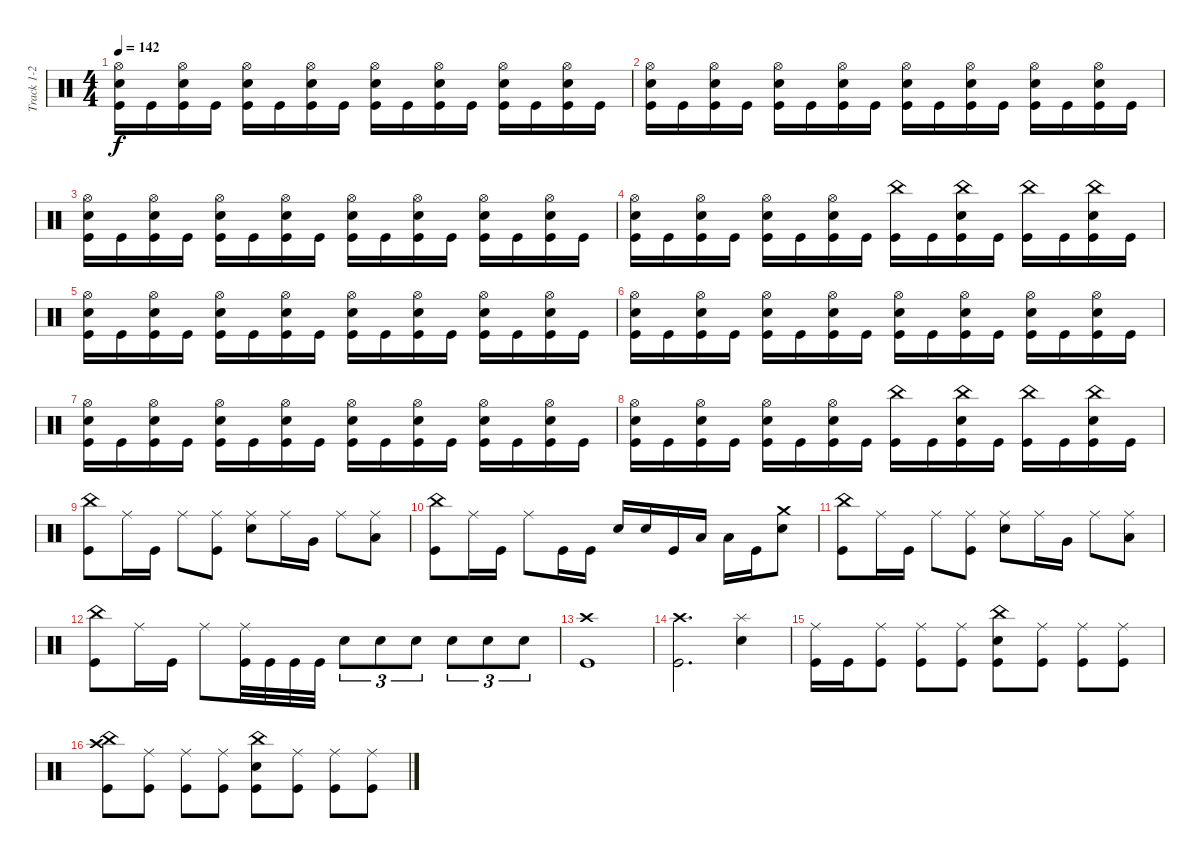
\track ("Track 1-2" "Track 1-2") {instrument percussion}
\staff {score}
\articulation defaults
\ts (4 4)
\tempo 142
\clef neutral
\ks c
("Hi-Hat (open)" "Electric Snare (hit)" "Kick (hit)").16{dy f} "Kick (hit)".16 ("Hi-Hat (open)" "Electric Snare (hit)" "Kick (hit)").16 "Kick (hit)".16 ("Hi-Hat (open)" "Electric Snare (hit)" "Kick (hit)").16 "Kick (hit)".16 ("Hi-Hat (open)" "Electric Snare (hit)" "Kick (hit)").16 "Kick (hit)".16 ("Hi-Hat (open)" "Electric Snare (hit)" "Kick (hit)").16 "Kick (hit)".16 ("Hi-Hat (open)" "Electric Snare (hit)" "Kick (hit)").16 "Kick (hit)".16 ("Hi-Hat (open)" "Electric Snare (hit)" "Kick (hit)").16 "Kick (hit)".16 ("Hi-Hat (open)" "Electric Snare (hit)" "Kick (hit)").16 "Kick (hit)".16 |
("Hi-Hat (open)" "Electric Snare (hit)" "Kick (hit)").16 "Kick (hit)".16 ("Hi-Hat (open)" "Electric Snare (hit)" "Kick (hit)").16 "Kick (hit)".16 ("Hi-Hat (open)" "Electric Snare (hit)" "Kick (hit)").16 "Kick (hit)".16 ("Hi-Hat (open)" "Electric Snare (hit)" "Kick (hit)").16 "Kick (hit)".16 ("Hi-Hat (open)" "Electric Snare (hit)" "Kick (hit)").16 "Kick (hit)".16 ("Hi-Hat (open)" "Electric Snare (hit)" "Kick (hit)").16 "Kick (hit)".16 ("Hi-Hat (open)" "Electric Snare (hit)" "Kick (hit)").16 "Kick (hit)".16 ("Hi-Hat (open)" "Electric Snare (hit)" "Kick (hit)").16 "Kick (hit)".16 |
("Hi-Hat (open)" "Electric Snare (hit)" "Kick (hit)").16 "Kick (hit)".16 ("Hi-Hat (open)" "Electric Snare (hit)" "Kick (hit)").16 "Kick (hit)".16 ("Hi-Hat (open)" "Electric Snare (hit)" "Kick (hit)").16 "Kick (hit)".16 ("Hi-Hat (open)" "Electric Snare (hit)" "Kick (hit)").16 "Kick (hit)".16 ("Hi-Hat (open)" "Electric Snare (hit)" "Kick (hit)").16 "Kick (hit)".16 ("Hi-Hat (open)" "Electric Snare (hit)" "Kick (hit)").16 "Kick (hit)".16 ("Hi-Hat (open)" "Electric Snare (hit)" "Kick (hit)").16 "Kick (hit)".16 ("Hi-Hat (open)" "Electric Snare (hit)" "Kick (hit)").16 "Kick (hit)".16 |
("Hi-Hat (open)" "Electric Snare (hit)" "Kick (hit)").16 "Kick (hit)".16 ("Hi-Hat (open)" "Electric Snare (hit)" "Kick (hit)").16 "Kick (hit)".16 ("Hi-Hat (open)" "Electric Snare (hit)" "Kick (hit)").16 "Kick (hit)".16 ("Hi-Hat (open)" "Electric Snare (hit)" "Kick (hit)").16 "Kick (hit)".16 ("China (hit)" "Kick (hit)").16 "Kick (hit)".16 ("China (hit)" "Electric Snare (hit)" "Kick (hit)").16 "Kick (hit)".16 ("China (hit)" "Kick (hit)").16 "Kick (hit)".16 ("China (hit)" "Electric Snare (hit)" "Kick (hit)").16 "Kick (hit)".16 |
("Hi-Hat (open)" "Electric Snare (hit)" "Kick (hit)").16 "Kick (hit)".16 ("Hi-Hat (open)" "Electric Snare (hit)" "Kick (hit)").16 "Kick (hit)".16 ("Hi-Hat (open)" "Electric Snare (hit)" "Kick (hit)").16 "Kick (hit)".16 ("Hi-Hat (open)" "Electric Snare (hit)" "Kick (hit)").16 "Kick (hit)".16 ("Hi-Hat (open)" "Electric Snare (hit)" "Kick (hit)").16 "Kick (hit)".16 ("Hi-Hat (open)" "Electric Snare (hit)" "Kick (hit)").16 "Kick (hit)".16 ("Hi-Hat (open)" "Electric Snare (hit)" "Kick (hit)").16 "Kick (hit)".16 ("Hi-Hat (open)" "Electric Snare (hit)" "Kick (hit)").16 "Kick (hit)".16 |
("Hi-Hat (open)" "Electric Snare (hit)" "Kick (hit)").16 "Kick (hit)".16 ("Hi-Hat (open)" "Electric Snare (hit)" "Kick (hit)").16 "Kick (hit)".16 ("Hi-Hat (open)" "Electric Snare (hit)" "Kick (hit)").16 "Kick (hit)".16 ("Hi-Hat (open)" "Electric Snare (hit)" "Kick (hit)").16 "Kick (hit)".16 ("Hi-Hat (open)" "Electric Snare (hit)" "Kick (hit)").16 "Kick (hit)".16 ("Hi-Hat (open)" "Electric Snare (hit)" "Kick (hit)").16 "Kick (hit)".16 ("Hi-Hat (open)" "Electric Snare (hit)" "Kick (hit)").16 "Kick (hit)".16 ("Hi-Hat (open)" "Electric Snare (hit)" "Kick (hit)").16 "Kick (hit)".16 |
("Hi-Hat (open)" "Electric Snare (hit)" "Kick (hit)").16 "Kick (hit)".16 ("Hi-Hat (open)" "Electric Snare (hit)" "Kick (hit)").16 "Kick (hit)".16 ("Hi-Hat (open)" "Electric Snare (hit)" "Kick (hit)").16 "Kick (hit)".16 ("Hi-Hat (open)" "Electric Snare (hit)" "Kick (hit)").16 "Kick (hit)".16 ("Hi-Hat (open)" "Electric Snare (hit)" "Kick (hit)").16 "Kick (hit)".16 ("Hi-Hat (open)" "Electric Snare (hit)" "Kick (hit)").16 "Kick (hit)".16 ("Hi-Hat (open)" "Electric Snare (hit)" "Kick (hit)").16 "Kick (hit)".16 ("Hi-Hat (open)" "Electric Snare (hit)" "Kick (hit)").16 "Kick (hit)".16 |
("Hi-Hat (open)" "Electric Snare (hit)" "Kick (hit)").16 "Kick (hit)".16 ("Hi-Hat (open)" "Electric Snare (hit)" "Kick (hit)").16 "Kick (hit)".16 ("Hi-Hat (open)" "Electric Snare (hit)" "Kick (hit)").16 "Kick (hit)".16 ("Hi-Hat (open)" "Electric Snare (hit)" "Kick (hit)").16 "Kick (hit)".16 ("China (hit)" "Kick (hit)").16 "Kick (hit)".16 ("China (hit)" "Electric Snare (hit)" "Kick (hit)").16 "Kick (hit)".16 ("China (hit)" "Kick (hit)").16 "Kick (hit)".16 ("China (hit)" "Electric Snare (hit)" "Kick (hit)").16 "Kick (hit)".16 |
("China (hit)" "Kick (hit)").8 "Ride (middle)".16 "Kick (hit)".16 "Ride (middle)".8 ("Ride (middle)" "Kick (hit)").8 ("Ride (middle)" "Electric Snare (hit)").8 "Ride (middle)".16 "Very Low Tom (hit)".16 "Ride (middle)".8 ("Ride (middle)" "Low Floor Tom (hit)").8 |
("China (hit)" "Kick (hit)").8 "Ride (middle)".16 "Kick (hit)".16 "Ride (middle)".8 "Kick (hit)".16 "Kick (hit)".16 "Electric Snare (hit)".16 "Electric Snare (hit)".16 "Kick (hit)".16 "Low Floor Tom (hit)".16 "Low Tom (hit)".16 "Kick (hit)".16 ("Crash medium (hit)" "Electric Snare (hit)").8 |
("China (hit)" "Kick (hit)").8 "Ride (middle)".16 "Kick (hit)".16 "Ride (middle)".8 ("Ride (middle)" "Kick (hit)").8 ("Ride (middle)" "Electric Snare (hit)").8 "Ride (middle)".16 "Very Low Tom (hit)".16 "Ride (middle)".8 ("Ride (middle)" "Low Floor Tom (hit)").8 |
("China (hit)" "Kick (hit)").8 "Ride (middle)".16 "Kick (hit)".16 "Ride (middle)".8 ("Ride (middle)" "Kick (hit)").32 "Kick (hit)".32 "Kick (hit)".32 "Kick (hit)".32 "Electric Snare (hit)".8{tu (3 2)} "Electric Snare (hit)".8{tu (3 2)} "Electric Snare (hit)".8{tu (3 2)} "Electric Snare (hit)".8{tu (3 2)} "Electric Snare (hit)".8{tu (3 2)} "Electric Snare (hit)".8{tu (3 2)} |
("Crash high (hit)" "Kick (hit)").1 |
("Crash high (hit)" "Kick (hit)").2{d} ("Splash (hit)" "Electric Snare (hit)").4 |
("Ride (middle)" "Kick (hit)").16 "Kick (hit)".16 ("Ride (middle)" "Kick (hit)").8 ("Ride (middle)" "Kick (hit)").8 ("Ride (middle)" "Kick (hit)").8 ("China (hit)" "Electric Snare (hit)" "Kick (hit)").8 ("Ride (middle)" "Kick (hit)").8 ("Ride (middle)" "Kick (hit)").8 ("Ride (middle)" "Kick (hit)").8 |
("China (hit)" "Crash high (hit)" "Kick (hit)").8 ("Ride (middle)" "Kick (hit)").8 ("Ride (middle)" "Kick (hit)").8 ("Ride (middle)" "Kick (hit)").8 ("China (hit)" "Electric Snare (hit)" "Kick (hit)").8 ("Ride (middle)" "Kick (hit)").8 ("Ride (middle)" "Kick (hit)").8 ("Ride (middle)" "Kick (hit)").8
